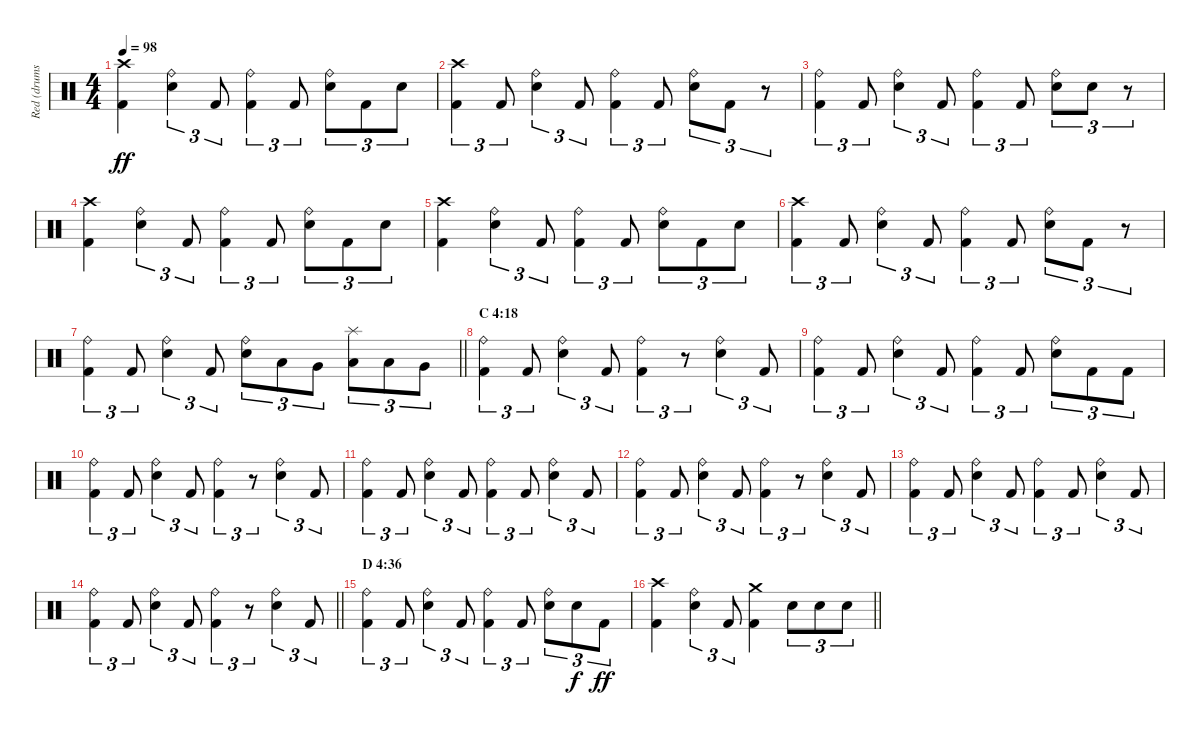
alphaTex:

\track ("Red (drums)" "Red (drums") {instrument percussion}
\staff {score}
\articulation defaults
\ts (4 4)
\tempo 98
\clef neutral
\ks c
("Crash high (hit)" "Kick (hit) 2").4{dy ff} ("Ride (bell)" "Electric Snare (hit)").4{tu (3 2)} "Kick (hit) 2".8{tu (3 2)} ("Ride (bell)" "Kick (hit) 2").4{tu (3 2)} "Kick (hit) 2".8{tu (3 2)} ("Ride (bell)" "Electric Snare (hit)").8{tu (3 2)} "Kick (hit) 2".8{tu (3 2)} "Electric Snare (hit)".8{tu (3 2)} |
("Crash high (hit)" "Kick (hit) 2").4{tu (3 2)} "Kick (hit) 2".8{tu (3 2)} ("Ride (bell)" "Electric Snare (hit)").4{tu (3 2)} "Kick (hit) 2".8{tu (3 2)} ("Ride (bell)" "Kick (hit) 2").4{tu (3 2)} "Kick (hit) 2".8{tu (3 2)} ("Ride (bell)" "Electric Snare (hit)").8{tu (3 2)} "Kick (hit) 2".8{tu (3 2)} r.8{tu (3 2)} |
("Ride (bell)" "Kick (hit) 2").4{tu (3 2)} "Kick (hit) 2".8{tu (3 2)} ("Ride (bell)" "Electric Snare (hit)").4{tu (3 2)} "Kick (hit) 2".8{tu (3 2)} ("Ride (bell)" "Kick (hit) 2").4{tu (3 2)} "Kick (hit) 2".8{tu (3 2)} ("Ride (bell)" "Electric Snare (hit)").8{tu (3 2)} "Electric Snare (hit)".8{tu (3 2)} r.8{tu (3 2)} |
("Crash high (hit)" "Kick (hit) 2").4 ("Ride (bell)" "Electric Snare (hit)").4{tu (3 2)} "Kick (hit) 2".8{tu (3 2)} ("Ride (bell)" "Kick (hit) 2").4{tu (3 2)} "Kick (hit) 2".8{tu (3 2)} ("Ride (bell)" "Electric Snare (hit)").8{tu (3 2)} "Kick (hit) 2".8{tu (3 2)} "Electric Snare (hit)".8{tu (3 2)} |
("Crash high (hit)" "Kick (hit) 2").4 ("Ride (bell)" "Electric Snare (hit)").4{tu (3 2)} "Kick (hit) 2".8{tu (3 2)} ("Ride (bell)" "Kick (hit) 2").4{tu (3 2)} "Kick (hit) 2".8{tu (3 2)} ("Ride (bell)" "Electric Snare (hit)").8{tu (3 2)} "Kick (hit) 2".8{tu (3 2)} "Electric Snare (hit)".8{tu (3 2)} |
("Crash high (hit)" "Kick (hit) 2").4{tu (3 2)} "Kick (hit) 2".8{tu (3 2)} ("Ride (bell)" "Electric Snare (hit)").4{tu (3 2)} "Kick (hit) 2".8{tu (3 2)} ("Ride (bell)" "Kick (hit) 2").4{tu (3 2)} "Kick (hit) 2".8{tu (3 2)} ("Ride (bell)" "Electric Snare (hit)").8{tu (3 2)} "Kick (hit) 2".8{tu (3 2)} r.8{tu (3 2)} |
\barLineRight lightlight
("Ride (bell)" "Kick (hit) 2").4{tu (3 2)} "Kick (hit) 2".8{tu (3 2)} ("Ride (bell)" "Electric Snare (hit)").4{tu (3 2)} "Kick (hit) 2".8{tu (3 2)} ("Ride (bell)" "Electric Snare (hit)").8{tu (3 2)} "Low Tom (hit)".8{tu (3 2)} "Very Low Tom (hit)".8{tu (3 2)} ("Splash (hit)" "Low Tom (hit)").8{tu (3 2)} "Low Tom (hit)".8{tu (3 2)} "Very Low Tom (hit)".8{tu (3 2)} |
\section ("" "C 4:18")
("Ride (bell)" "Kick (hit) 2").4{tu (3 2)} "Kick (hit) 2".8{tu (3 2)} ("Ride (bell)" "Electric Snare (hit)").4{tu (3 2)} "Kick (hit) 2".8{tu (3 2)} ("Ride (bell)" "Kick (hit) 2").4{tu (3 2)} r.8{tu (3 2)} ("Ride (bell)" "Electric Snare (hit)").4{tu (3 2)} "Kick (hit) 2".8{tu (3 2)} |
("Ride (bell)" "Kick (hit) 2").4{tu (3 2)} "Kick (hit) 2".8{tu (3 2)} ("Ride (bell)" "Electric Snare (hit)").4{tu (3 2)} "Kick (hit) 2".8{tu (3 2)} ("Ride (bell)" "Kick (hit) 2").4{tu (3 2)} "Kick (hit) 2".8{tu (3 2)} ("Ride (bell)" "Electric Snare (hit)").8{tu (3 2)} "Kick (hit) 2".8{tu (3 2)} "Kick (hit) 2".8{tu (3 2)} |
("Ride (bell)" "Kick (hit) 2").4{tu (3 2)} "Kick (hit) 2".8{tu (3 2)} ("Ride (bell)" "Electric Snare (hit)").4{tu (3 2)} "Kick (hit) 2".8{tu (3 2)} ("Ride (bell)" "Kick (hit) 2").4{tu (3 2)} r.8{tu (3 2)} ("Ride (bell)" "Electric Snare (hit)").4{tu (3 2)} "Kick (hit) 2".8{tu (3 2)} |
("Ride (bell)" "Kick (hit) 2").4{tu (3 2)} "Kick (hit) 2".8{tu (3 2)} ("Ride (bell)" "Electric Snare (hit)").4{tu (3 2)} "Kick (hit) 2".8{tu (3 2)} ("Ride (bell)" "Kick (hit) 2").4{tu (3 2)} "Kick (hit) 2".8{tu (3 2)} ("Ride (bell)" "Electric Snare (hit)").4{tu (3 2)} "Kick (hit) 2".8{tu (3 2)} |
("Ride (bell)" "Kick (hit) 2").4{tu (3 2)} "Kick (hit) 2".8{tu (3 2)} ("Ride (bell)" "Electric Snare (hit)").4{tu (3 2)} "Kick (hit) 2".8{tu (3 2)} ("Ride (bell)" "Kick (hit) 2").4{tu (3 2)} r.8{tu (3 2)} ("Ride (bell)" "Electric Snare (hit)").4{tu (3 2)} "Kick (hit) 2".8{tu (3 2)} |
("Ride (bell)" "Kick (hit) 2").4{tu (3 2)} "Kick (hit) 2".8{tu (3 2)} ("Ride (bell)" "Electric Snare (hit)").4{tu (3 2)} "Kick (hit) 2".8{tu (3 2)} ("Ride (bell)" "Kick (hit) 2").4{tu (3 2)} "Kick (hit) 2".8{tu (3 2)} ("Ride (bell)" "Electric Snare (hit)").4{tu (3 2)} "Kick (hit) 2".8{tu (3 2)} |
\barLineRight lightlight
("Ride (bell)" "Kick (hit) 2").4{tu (3 2)} "Kick (hit) 2".8{tu (3 2)} ("Ride (bell)" "Electric Snare (hit)").4{tu (3 2)} "Kick (hit) 2".8{tu (3 2)} ("Ride (bell)" "Kick (hit) 2").4{tu (3 2)} r.8{tu (3 2)} ("Ride (bell)" "Electric Snare (hit)").4{tu (3 2)} "Kick (hit) 2".8{tu (3 2)} |
\section ("" "D 4:36")
("Ride (bell)" "Kick (hit) 2").4{tu (3 2)} "Kick (hit) 2".8{tu (3 2)} ("Ride (bell)" "Electric Snare (hit)").4{tu (3 2)} "Kick (hit) 2".8{tu (3 2)} ("Ride (bell)" "Kick (hit) 2").4{tu (3 2)} "Kick (hit) 2".8{tu (3 2)} ("Ride (bell)" "Electric Snare (hit)").8{tu (3 2)} "Electric Snare (hit)".8{tu (3 2) dy f} "Kick (hit) 2".8{tu (3 2) dy ff} |
\barLineRight lightlight
("Crash high (hit)" "Kick (hit) 2").4 ("Ride (bell)" "Electric Snare (hit)").4{tu (3 2)} "Kick (hit) 2".8{tu (3 2)} ("Crash medium (hit)" "Kick (hit) 2").4 "Electric Snare (hit)".8{tu (3 2)} "Electric Snare (hit)".8{tu (3 2)} "Electric Snare (hit)".8{tu (3 2)}
